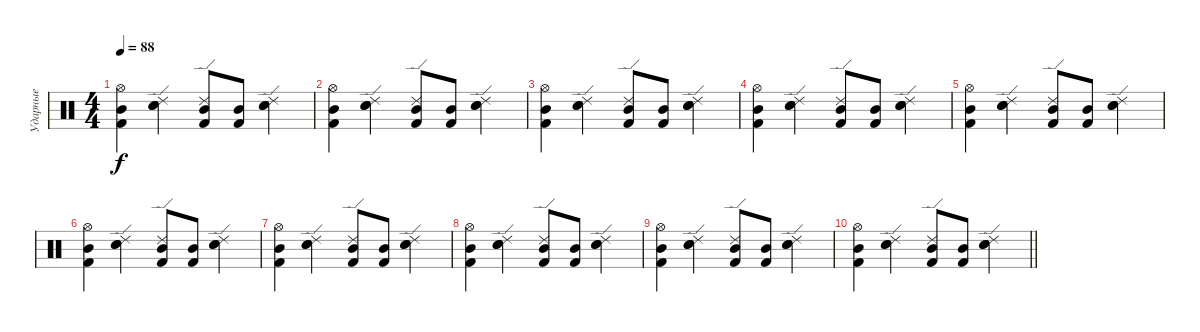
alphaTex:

\track ("Ударные" "Ударные") {instrument percussion}
\staff {score}
\articulation defaults
\ts (4 4)
\tempo 88
\clef neutral
\ks c
("Kick (hit) 2" "Mid Tom (hit)" "Hi-Hat (open)").4{dy f} ("Ride (edge) 2" "Electric Snare (hit)" "Electric Snare (hit)").4 ("Ride (edge) 2" "Mid Tom (hit)" "Kick (hit) 2").8 ("Mid Tom (hit)" "Kick (hit) 2").8 ("Ride (edge) 2" "Electric Snare (hit)" "Electric Snare (hit)").4 |
("Kick (hit) 2" "Mid Tom (hit)" "Hi-Hat (open)").4 ("Ride (edge) 2" "Electric Snare (hit)" "Electric Snare (hit)").4 ("Ride (edge) 2" "Mid Tom (hit)" "Kick (hit) 2").8 ("Mid Tom (hit)" "Kick (hit) 2").8 ("Ride (edge) 2" "Electric Snare (hit)" "Electric Snare (hit)").4 |
("Kick (hit) 2" "Mid Tom (hit)" "Hi-Hat (open)").4 ("Ride (edge) 2" "Electric Snare (hit)" "Electric Snare (hit)").4 ("Ride (edge) 2" "Mid Tom (hit)" "Kick (hit) 2").8 ("Mid Tom (hit)" "Kick (hit) 2").8 ("Ride (edge) 2" "Electric Snare (hit)" "Electric Snare (hit)").4 |
("Kick (hit) 2" "Mid Tom (hit)" "Hi-Hat (open)").4 ("Ride (edge) 2" "Electric Snare (hit)" "Electric Snare (hit)").4 ("Ride (edge) 2" "Mid Tom (hit)" "Kick (hit) 2").8 ("Mid Tom (hit)" "Kick (hit) 2").8 ("Ride (edge) 2" "Electric Snare (hit)" "Electric Snare (hit)").4 |
("Kick (hit) 2" "Mid Tom (hit)" "Hi-Hat (open)").4 ("Ride (edge) 2" "Electric Snare (hit)" "Electric Snare (hit)").4 ("Ride (edge) 2" "Mid Tom (hit)" "Kick (hit) 2").8 ("Mid Tom (hit)" "Kick (hit) 2").8 ("Ride (edge) 2" "Electric Snare (hit)" "Electric Snare (hit)").4 |
("Kick (hit) 2" "Mid Tom (hit)" "Hi-Hat (open)").4 ("Ride (edge) 2" "Electric Snare (hit)" "Electric Snare (hit)").4 ("Ride (edge) 2" "Mid Tom (hit)" "Kick (hit) 2").8 ("Mid Tom (hit)" "Kick (hit) 2").8 ("Ride (edge) 2" "Electric Snare (hit)" "Electric Snare (hit)").4 |
("Kick (hit) 2" "Mid Tom (hit)" "Hi-Hat (open)").4 ("Ride (edge) 2" "Electric Snare (hit)" "Electric Snare (hit)").4 ("Ride (edge) 2" "Mid Tom (hit)" "Kick (hit) 2").8 ("Mid Tom (hit)" "Kick (hit) 2").8 ("Ride (edge) 2" "Electric Snare (hit)" "Electric Snare (hit)").4 |
("Kick (hit) 2" "Mid Tom (hit)" "Hi-Hat (open)").4 ("Ride (edge) 2" "Electric Snare (hit)" "Electric Snare (hit)").4 ("Ride (edge) 2" "Mid Tom (hit)" "Kick (hit) 2").8 ("Mid Tom (hit)" "Kick (hit) 2").8 ("Ride (edge) 2" "Electric Snare (hit)" "Electric Snare (hit)").4 |
("Kick (hit) 2" "Mid Tom (hit)" "Hi-Hat (open)").4 ("Ride (edge) 2" "Electric Snare (hit)" "Electric Snare (hit)").4 ("Ride (edge) 2" "Mid Tom (hit)" "Kick (hit) 2").8 ("Mid Tom (hit)" "Kick (hit) 2").8 ("Ride (edge) 2" "Electric Snare (hit)" "Electric Snare (hit)").4 |
\barLineRight lightlight
("Kick (hit) 2" "Mid Tom (hit)" "Hi-Hat (open)").4 ("Ride (edge) 2" "Electric Snare (hit)" "Electric Snare (hit)").4 ("Ride (edge) 2" "Mid Tom (hit)" "Kick (hit) 2").8 ("Mid Tom (hit)" "Kick (hit) 2").8 ("Ride (edge) 2" "Electric Snare (hit)" "Electric Snare (hit)").4
